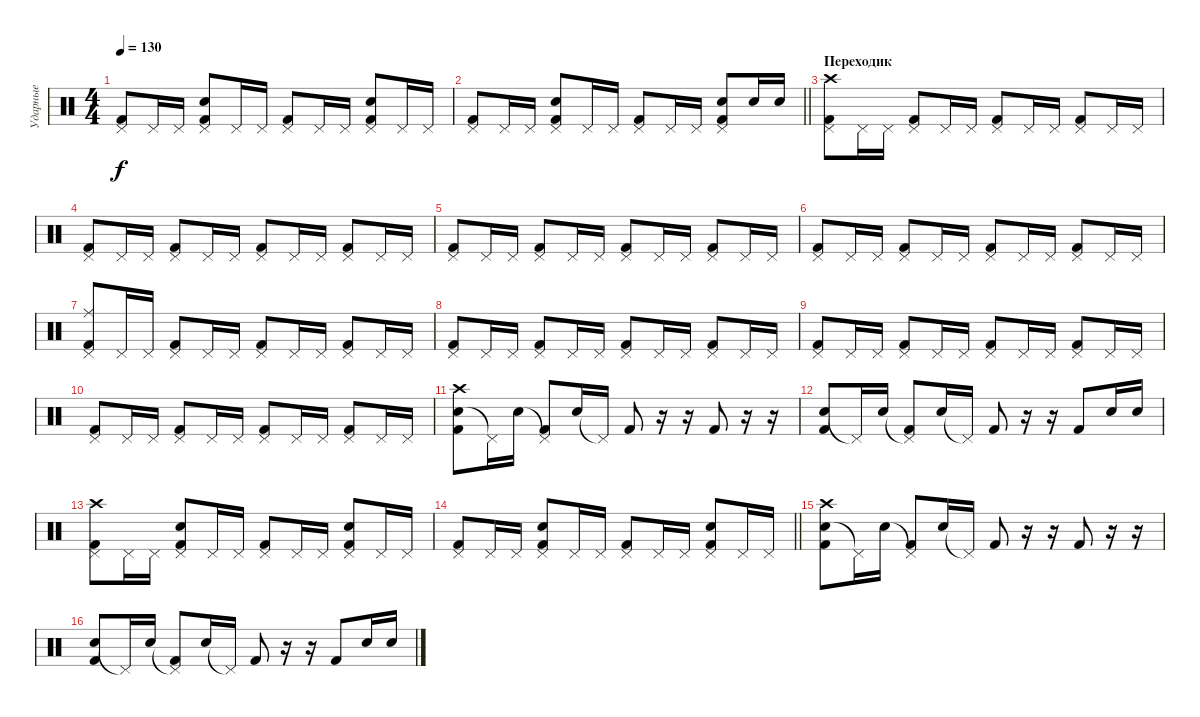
\track ("Ударные" "Ударные") {instrument percussion}
\staff {score}
\articulation defaults
\ts (4 4)
\tempo 130
\clef neutral
\ks c
("Pedal Hi-Hat (hit)" "Kick (hit) 2").8{dy f} "Pedal Hi-Hat (hit)".16 "Pedal Hi-Hat (hit)".16 ("Pedal Hi-Hat (hit)" "Electric Snare (hit)" "Kick (hit) 2").8 "Pedal Hi-Hat (hit)".16 "Pedal Hi-Hat (hit)".16 ("Pedal Hi-Hat (hit)" "Kick (hit) 2").8 "Pedal Hi-Hat (hit)".16 "Pedal Hi-Hat (hit)".16 ("Pedal Hi-Hat (hit)" "Electric Snare (hit)" "Kick (hit) 2").8 "Pedal Hi-Hat (hit)".16 "Pedal Hi-Hat (hit)".16 |
\barLineRight lightlight
("Pedal Hi-Hat (hit)" "Kick (hit) 2").8 "Pedal Hi-Hat (hit)".16 "Pedal Hi-Hat (hit)".16 ("Pedal Hi-Hat (hit)" "Electric Snare (hit)" "Kick (hit) 2").8 "Pedal Hi-Hat (hit)".16 "Pedal Hi-Hat (hit)".16 ("Pedal Hi-Hat (hit)" "Kick (hit) 2").8 "Pedal Hi-Hat (hit)".16 "Pedal Hi-Hat (hit)".16 ("Pedal Hi-Hat (hit)" "Electric Snare (hit)" "Kick (hit) 2").8 "Electric Snare (hit)".16 "Electric Snare (hit)".16 |
\section ("" "Переходик")
("Pedal Hi-Hat (hit)" "Crash high (hit)" "Kick (hit) 2").8 "Pedal Hi-Hat (hit)".16 "Pedal Hi-Hat (hit)".16 ("Pedal Hi-Hat (hit)" "Kick (hit) 2").8 "Pedal Hi-Hat (hit)".16 "Pedal Hi-Hat (hit)".16 ("Pedal Hi-Hat (hit)" "Kick (hit) 2").8 "Pedal Hi-Hat (hit)".16 "Pedal Hi-Hat (hit)".16 ("Pedal Hi-Hat (hit)" "Kick (hit) 2").8 "Pedal Hi-Hat (hit)".16 "Pedal Hi-Hat (hit)".16 |
("Pedal Hi-Hat (hit)" "Kick (hit) 2").8 "Pedal Hi-Hat (hit)".16 "Pedal Hi-Hat (hit)".16 ("Pedal Hi-Hat (hit)" "Kick (hit) 2").8 "Pedal Hi-Hat (hit)".16 "Pedal Hi-Hat (hit)".16 ("Pedal Hi-Hat (hit)" "Kick (hit) 2").8 "Pedal Hi-Hat (hit)".16 "Pedal Hi-Hat (hit)".16 ("Pedal Hi-Hat (hit)" "Kick (hit) 2").8 "Pedal Hi-Hat (hit)".16 "Pedal Hi-Hat (hit)".16 |
("Pedal Hi-Hat (hit)" "Kick (hit) 2").8 "Pedal Hi-Hat (hit)".16 "Pedal Hi-Hat (hit)".16 ("Pedal Hi-Hat (hit)" "Kick (hit) 2").8 "Pedal Hi-Hat (hit)".16 "Pedal Hi-Hat (hit)".16 ("Pedal Hi-Hat (hit)" "Kick (hit) 2").8 "Pedal Hi-Hat (hit)".16 "Pedal Hi-Hat (hit)".16 ("Pedal Hi-Hat (hit)" "Kick (hit) 2").8 "Pedal Hi-Hat (hit)".16 "Pedal Hi-Hat (hit)".16 |
("Pedal Hi-Hat (hit)" "Kick (hit) 2").8 "Pedal Hi-Hat (hit)".16 "Pedal Hi-Hat (hit)".16 ("Pedal Hi-Hat (hit)" "Kick (hit) 2").8 "Pedal Hi-Hat (hit)".16 "Pedal Hi-Hat (hit)".16 ("Pedal Hi-Hat (hit)" "Kick (hit) 2").8 "Pedal Hi-Hat (hit)".16 "Pedal Hi-Hat (hit)".16 ("Pedal Hi-Hat (hit)" "Kick (hit) 2").8 "Pedal Hi-Hat (hit)".16 "Pedal Hi-Hat (hit)".16 |
("Pedal Hi-Hat (hit)" "Ride (middle)" "Kick (hit) 2").8 "Pedal Hi-Hat (hit)".16 "Pedal Hi-Hat (hit)".16 ("Pedal Hi-Hat (hit)" "Kick (hit) 2").8 "Pedal Hi-Hat (hit)".16 "Pedal Hi-Hat (hit)".16 ("Pedal Hi-Hat (hit)" "Kick (hit) 2").8 "Pedal Hi-Hat (hit)".16 "Pedal Hi-Hat (hit)".16 ("Pedal Hi-Hat (hit)" "Kick (hit) 2").8 "Pedal Hi-Hat (hit)".16 "Pedal Hi-Hat (hit)".16 |
("Pedal Hi-Hat (hit)" "Kick (hit) 2").8 "Pedal Hi-Hat (hit)".16 "Pedal Hi-Hat (hit)".16 ("Pedal Hi-Hat (hit)" "Kick (hit) 2").8 "Pedal Hi-Hat (hit)".16 "Pedal Hi-Hat (hit)".16 ("Pedal Hi-Hat (hit)" "Kick (hit) 2").8 "Pedal Hi-Hat (hit)".16 "Pedal Hi-Hat (hit)".16 ("Pedal Hi-Hat (hit)" "Kick (hit) 2").8 "Pedal Hi-Hat (hit)".16 "Pedal Hi-Hat (hit)".16 |
("Pedal Hi-Hat (hit)" "Kick (hit) 2").8 "Pedal Hi-Hat (hit)".16 "Pedal Hi-Hat (hit)".16 ("Pedal Hi-Hat (hit)" "Kick (hit) 2").8 "Pedal Hi-Hat (hit)".16 "Pedal Hi-Hat (hit)".16 ("Pedal Hi-Hat (hit)" "Kick (hit) 2").8 "Pedal Hi-Hat (hit)".16 "Pedal Hi-Hat (hit)".16 ("Pedal Hi-Hat (hit)" "Kick (hit) 2").8 "Pedal Hi-Hat (hit)".16 "Pedal Hi-Hat (hit)".16 |
("Pedal Hi-Hat (hit)" "Kick (hit) 2").8 "Pedal Hi-Hat (hit)".16 "Pedal Hi-Hat (hit)".16 ("Pedal Hi-Hat (hit)" "Kick (hit) 2").8 "Pedal Hi-Hat (hit)".16 "Pedal Hi-Hat (hit)".16 ("Pedal Hi-Hat (hit)" "Kick (hit) 2").8 "Pedal Hi-Hat (hit)".16 "Pedal Hi-Hat (hit)".16 ("Pedal Hi-Hat (hit)" "Kick (hit) 2").8 "Pedal Hi-Hat (hit)".16 "Pedal Hi-Hat (hit)".16 |
("Electric Snare (hit)" "Crash high (hit)" "Kick (hit) 2").8 "Pedal Hi-Hat (hit)"{t}.16 "Electric Snare (hit)".16 ("Pedal Hi-Hat (hit)"{t} "Kick (hit) 2").8 "Electric Snare (hit)".16 "Pedal Hi-Hat (hit)"{t}.16 "Kick (hit) 2".8 r.16 r.16 "Kick (hit) 2".8 r.16 r.16 |
("Electric Snare (hit)" "Kick (hit) 2").8 "Pedal Hi-Hat (hit)"{t}.16 "Electric Snare (hit)".16 ("Pedal Hi-Hat (hit)"{t} "Kick (hit) 2").8 "Electric Snare (hit)".16 "Pedal Hi-Hat (hit)"{t}.16 "Kick (hit) 2".8 r.16 r.16 "Kick (hit) 2".8 "Electric Snare (hit)".16 "Electric Snare (hit)".16 |
("Pedal Hi-Hat (hit)" "Crash high (hit)" "Kick (hit) 2").8 "Pedal Hi-Hat (hit)".16 "Pedal Hi-Hat (hit)".16 ("Pedal Hi-Hat (hit)" "Electric Snare (hit)" "Kick (hit) 2").8 "Pedal Hi-Hat (hit)".16 "Pedal Hi-Hat (hit)".16 ("Pedal Hi-Hat (hit)" "Kick (hit) 2").8 "Pedal Hi-Hat (hit)".16 "Pedal Hi-Hat (hit)".16 ("Pedal Hi-Hat (hit)" "Electric Snare (hit)" "Kick (hit) 2").8 "Pedal Hi-Hat (hit)".16 "Pedal Hi-Hat (hit)".16 |
\barLineRight lightlight
("Pedal Hi-Hat (hit)" "Kick (hit) 2").8 "Pedal Hi-Hat (hit)".16 "Pedal Hi-Hat (hit)".16 ("Pedal Hi-Hat (hit)" "Electric Snare (hit)" "Kick (hit) 2").8 "Pedal Hi-Hat (hit)".16 "Pedal Hi-Hat (hit)".16 ("Pedal Hi-Hat (hit)" "Kick (hit) 2").8 "Pedal Hi-Hat (hit)".16 "Pedal Hi-Hat (hit)".16 ("Pedal Hi-Hat (hit)" "Electric Snare (hit)" "Kick (hit) 2").8 "Pedal Hi-Hat (hit)".16 "Pedal Hi-Hat (hit)".16 |
("Electric Snare (hit)" "Crash high (hit)" "Kick (hit) 2").8 "Pedal Hi-Hat (hit)"{t}.16 "Electric Snare (hit)".16 ("Pedal Hi-Hat (hit)"{t} "Kick (hit) 2").8 "Electric Snare (hit)".16 "Pedal Hi-Hat (hit)"{t}.16 "Kick (hit) 2".8 r.16 r.16 "Kick (hit) 2".8 r.16 r.16 |
("Electric Snare (hit)" "Kick (hit) 2").8 "Pedal Hi-Hat (hit)"{t}.16 "Electric Snare (hit)".16 ("Pedal Hi-Hat (hit)"{t} "Kick (hit) 2").8 "Electric Snare (hit)".16 "Pedal Hi-Hat (hit)"{t}.16 "Kick (hit) 2".8 r.16 r.16 "Kick (hit) 2".8 "Electric Snare (hit)".16 "Electric Snare (hit)".16
